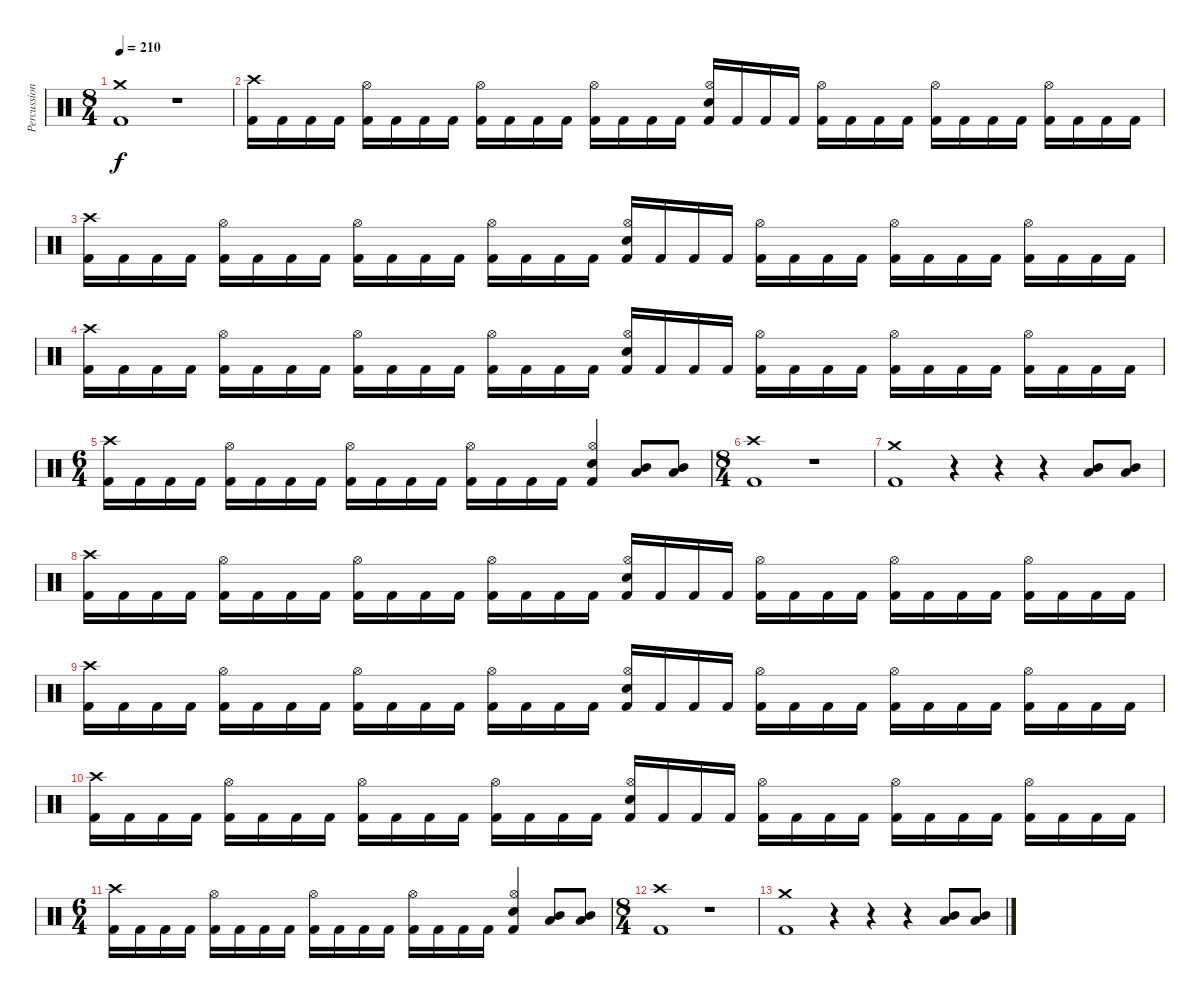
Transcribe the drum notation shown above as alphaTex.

\track ("Percussion" "Percussion") {mute instrument percussion}
\staff {score}
\articulation defaults
\ts (8 4)
\tempo 210
\clef neutral
\ks c
("Kick (hit) 2" "Crash medium (hit)").1{dy f} r.1 |
("Kick (hit) 2" "Crash high (hit)").16 "Kick (hit) 2".16 "Kick (hit) 2".16 "Kick (hit) 2".16 ("Kick (hit) 2" "Hi-Hat (open)").16 "Kick (hit) 2".16 "Kick (hit) 2".16 "Kick (hit) 2".16 ("Kick (hit) 2" "Hi-Hat (open)").16 "Kick (hit) 2".16 "Kick (hit) 2".16 "Kick (hit) 2".16 ("Kick (hit) 2" "Hi-Hat (open)").16 "Kick (hit) 2".16 "Kick (hit) 2".16 "Kick (hit) 2".16 ("Kick (hit) 2" "Electric Snare (hit)" "Hi-Hat (open)").16 "Kick (hit) 2".16 "Kick (hit) 2".16 "Kick (hit) 2".16 ("Kick (hit) 2" "Hi-Hat (open)").16 "Kick (hit) 2".16 "Kick (hit) 2".16 "Kick (hit) 2".16 ("Kick (hit) 2" "Hi-Hat (open)").16 "Kick (hit) 2".16 "Kick (hit) 2".16 "Kick (hit) 2".16 ("Kick (hit) 2" "Hi-Hat (open)").16 "Kick (hit) 2".16 "Kick (hit) 2".16 "Kick (hit) 2".16 |
("Kick (hit) 2" "Crash high (hit)").16 "Kick (hit) 2".16 "Kick (hit) 2".16 "Kick (hit) 2".16 ("Kick (hit) 2" "Hi-Hat (open)").16 "Kick (hit) 2".16 "Kick (hit) 2".16 "Kick (hit) 2".16 ("Kick (hit) 2" "Hi-Hat (open)").16 "Kick (hit) 2".16 "Kick (hit) 2".16 "Kick (hit) 2".16 ("Kick (hit) 2" "Hi-Hat (open)").16 "Kick (hit) 2".16 "Kick (hit) 2".16 "Kick (hit) 2".16 ("Kick (hit) 2" "Electric Snare (hit)" "Hi-Hat (open)").16 "Kick (hit) 2".16 "Kick (hit) 2".16 "Kick (hit) 2".16 ("Kick (hit) 2" "Hi-Hat (open)").16 "Kick (hit) 2".16 "Kick (hit) 2".16 "Kick (hit) 2".16 ("Kick (hit) 2" "Hi-Hat (open)").16 "Kick (hit) 2".16 "Kick (hit) 2".16 "Kick (hit) 2".16 ("Kick (hit) 2" "Hi-Hat (open)").16 "Kick (hit) 2".16 "Kick (hit) 2".16 "Kick (hit) 2".16 |
("Kick (hit) 2" "Crash high (hit)").16 "Kick (hit) 2".16 "Kick (hit) 2".16 "Kick (hit) 2".16 ("Kick (hit) 2" "Hi-Hat (open)").16 "Kick (hit) 2".16 "Kick (hit) 2".16 "Kick (hit) 2".16 ("Kick (hit) 2" "Hi-Hat (open)").16 "Kick (hit) 2".16 "Kick (hit) 2".16 "Kick (hit) 2".16 ("Kick (hit) 2" "Hi-Hat (open)").16 "Kick (hit) 2".16 "Kick (hit) 2".16 "Kick (hit) 2".16 ("Kick (hit) 2" "Electric Snare (hit)" "Hi-Hat (open)").16 "Kick (hit) 2".16 "Kick (hit) 2".16 "Kick (hit) 2".16 ("Kick (hit) 2" "Hi-Hat (open)").16 "Kick (hit) 2".16 "Kick (hit) 2".16 "Kick (hit) 2".16 ("Kick (hit) 2" "Hi-Hat (open)").16 "Kick (hit) 2".16 "Kick (hit) 2".16 "Kick (hit) 2".16 ("Kick (hit) 2" "Hi-Hat (open)").16 "Kick (hit) 2".16 "Kick (hit) 2".16 "Kick (hit) 2".16 |
\ts (6 4)
("Kick (hit) 2" "Crash high (hit)").16 "Kick (hit) 2".16 "Kick (hit) 2".16 "Kick (hit) 2".16 ("Kick (hit) 2" "Hi-Hat (open)").16 "Kick (hit) 2".16 "Kick (hit) 2".16 "Kick (hit) 2".16 ("Kick (hit) 2" "Hi-Hat (open)").16 "Kick (hit) 2".16 "Kick (hit) 2".16 "Kick (hit) 2".16 ("Kick (hit) 2" "Hi-Hat (open)").16 "Kick (hit) 2".16 "Kick (hit) 2".16 "Kick (hit) 2".16 ("Kick (hit) 2" "Electric Snare (hit)" "Hi-Hat (open)").4 ("Low Tom (hit)" "Mid Tom (hit)").8 ("Low Tom (hit)" "Mid Tom (hit)").8 |
\ts (8 4)
("Kick (hit) 2" "Crash high (hit)").1 r.1 |
("Kick (hit) 2" "Crash medium (hit)").1 r.4 r.4 r.4 ("Low Tom (hit)" "Mid Tom (hit)").8 ("Low Tom (hit)" "Mid Tom (hit)").8 |
("Kick (hit) 2" "Crash high (hit)").16 "Kick (hit) 2".16 "Kick (hit) 2".16 "Kick (hit) 2".16 ("Kick (hit) 2" "Hi-Hat (open)").16 "Kick (hit) 2".16 "Kick (hit) 2".16 "Kick (hit) 2".16 ("Kick (hit) 2" "Hi-Hat (open)").16 "Kick (hit) 2".16 "Kick (hit) 2".16 "Kick (hit) 2".16 ("Kick (hit) 2" "Hi-Hat (open)").16 "Kick (hit) 2".16 "Kick (hit) 2".16 "Kick (hit) 2".16 ("Kick (hit) 2" "Electric Snare (hit)" "Hi-Hat (open)").16 "Kick (hit) 2".16 "Kick (hit) 2".16 "Kick (hit) 2".16 ("Kick (hit) 2" "Hi-Hat (open)").16 "Kick (hit) 2".16 "Kick (hit) 2".16 "Kick (hit) 2".16 ("Kick (hit) 2" "Hi-Hat (open)").16 "Kick (hit) 2".16 "Kick (hit) 2".16 "Kick (hit) 2".16 ("Kick (hit) 2" "Hi-Hat (open)").16 "Kick (hit) 2".16 "Kick (hit) 2".16 "Kick (hit) 2".16 |
("Kick (hit) 2" "Crash high (hit)").16 "Kick (hit) 2".16 "Kick (hit) 2".16 "Kick (hit) 2".16 ("Kick (hit) 2" "Hi-Hat (open)").16 "Kick (hit) 2".16 "Kick (hit) 2".16 "Kick (hit) 2".16 ("Kick (hit) 2" "Hi-Hat (open)").16 "Kick (hit) 2".16 "Kick (hit) 2".16 "Kick (hit) 2".16 ("Kick (hit) 2" "Hi-Hat (open)").16 "Kick (hit) 2".16 "Kick (hit) 2".16 "Kick (hit) 2".16 ("Kick (hit) 2" "Electric Snare (hit)" "Hi-Hat (open)").16 "Kick (hit) 2".16 "Kick (hit) 2".16 "Kick (hit) 2".16 ("Kick (hit) 2" "Hi-Hat (open)").16 "Kick (hit) 2".16 "Kick (hit) 2".16 "Kick (hit) 2".16 ("Kick (hit) 2" "Hi-Hat (open)").16 "Kick (hit) 2".16 "Kick (hit) 2".16 "Kick (hit) 2".16 ("Kick (hit) 2" "Hi-Hat (open)").16 "Kick (hit) 2".16 "Kick (hit) 2".16 "Kick (hit) 2".16 |
("Kick (hit) 2" "Crash high (hit)").16 "Kick (hit) 2".16 "Kick (hit) 2".16 "Kick (hit) 2".16 ("Kick (hit) 2" "Hi-Hat (open)").16 "Kick (hit) 2".16 "Kick (hit) 2".16 "Kick (hit) 2".16 ("Kick (hit) 2" "Hi-Hat (open)").16 "Kick (hit) 2".16 "Kick (hit) 2".16 "Kick (hit) 2".16 ("Kick (hit) 2" "Hi-Hat (open)").16 "Kick (hit) 2".16 "Kick (hit) 2".16 "Kick (hit) 2".16 ("Kick (hit) 2" "Electric Snare (hit)" "Hi-Hat (open)").16 "Kick (hit) 2".16 "Kick (hit) 2".16 "Kick (hit) 2".16 ("Kick (hit) 2" "Hi-Hat (open)").16 "Kick (hit) 2".16 "Kick (hit) 2".16 "Kick (hit) 2".16 ("Kick (hit) 2" "Hi-Hat (open)").16 "Kick (hit) 2".16 "Kick (hit) 2".16 "Kick (hit) 2".16 ("Kick (hit) 2" "Hi-Hat (open)").16 "Kick (hit) 2".16 "Kick (hit) 2".16 "Kick (hit) 2".16 |
\ts (6 4)
("Kick (hit) 2" "Crash high (hit)").16 "Kick (hit) 2".16 "Kick (hit) 2".16 "Kick (hit) 2".16 ("Kick (hit) 2" "Hi-Hat (open)").16 "Kick (hit) 2".16 "Kick (hit) 2".16 "Kick (hit) 2".16 ("Kick (hit) 2" "Hi-Hat (open)").16 "Kick (hit) 2".16 "Kick (hit) 2".16 "Kick (hit) 2".16 ("Kick (hit) 2" "Hi-Hat (open)").16 "Kick (hit) 2".16 "Kick (hit) 2".16 "Kick (hit) 2".16 ("Kick (hit) 2" "Electric Snare (hit)" "Hi-Hat (open)").4 ("Low Tom (hit)" "Mid Tom (hit)").8 ("Low Tom (hit)" "Mid Tom (hit)").8 |
\ts (8 4)
("Kick (hit) 2" "Crash high (hit)").1 r.1 |
("Kick (hit) 2" "Crash medium (hit)").1 r.4 r.4 r.4 ("Low Tom (hit)" "Mid Tom (hit)").8 ("Low Tom (hit)" "Mid Tom (hit)").8
